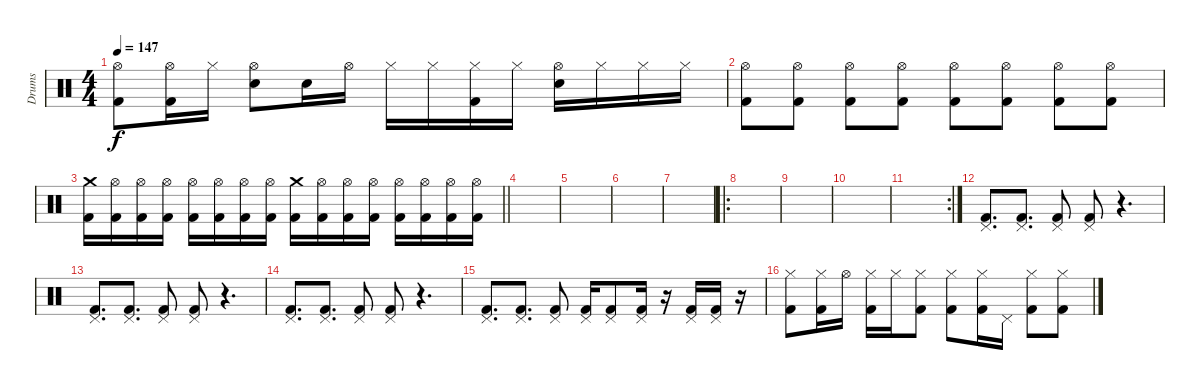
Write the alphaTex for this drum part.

\track ("Drums" "Drums") {instrument percussion}
\staff {score}
\articulation defaults
\ts (4 4)
\tempo 147
\clef neutral
\ks c
("Hi-Hat (open)" "Kick (hit) 2").8{dy f} ("Hi-Hat (open)" "Kick (hit) 2").16 "Hi-Hat (closed)".16 ("Hi-Hat (open)" "Electric Snare (hit)").8 "Electric Snare (hit)".16 "Hi-Hat (open)".16 "Hi-Hat (closed)".16 "Hi-Hat (closed)".16 ("Hi-Hat (closed)" "Kick (hit) 2").16 "Hi-Hat (closed)".16 ("Hi-Hat (open)" "Electric Snare (hit)").16 "Hi-Hat (closed)".16 "Hi-Hat (closed)".16 "Hi-Hat (closed)".16 |
("Hi-Hat (open)" "Kick (hit) 2").8 ("Hi-Hat (open)" "Kick (hit) 2").8 ("Hi-Hat (open)" "Kick (hit) 2").8 ("Hi-Hat (open)" "Kick (hit) 2").8 ("Hi-Hat (open)" "Kick (hit) 2").8 ("Hi-Hat (open)" "Kick (hit) 2").8 ("Hi-Hat (open)" "Kick (hit) 2").8 ("Hi-Hat (open)" "Kick (hit) 2").8 |
\barLineRight lightlight
("Crash medium (hit)" "Kick (hit) 2").16 ("Hi-Hat (open)" "Kick (hit) 2").16 ("Hi-Hat (open)" "Kick (hit) 2").16 ("Hi-Hat (open)" "Kick (hit) 2").16 ("Hi-Hat (open)" "Kick (hit) 2").16 ("Hi-Hat (open)" "Kick (hit) 2").16 ("Hi-Hat (open)" "Kick (hit) 2").16 ("Hi-Hat (open)" "Kick (hit) 2").16 ("Crash medium (hit)" "Kick (hit) 2").16 ("Hi-Hat (open)" "Kick (hit) 2").16 ("Hi-Hat (open)" "Kick (hit) 2").16 ("Hi-Hat (open)" "Kick (hit) 2").16 ("Hi-Hat (open)" "Kick (hit) 2").16 ("Hi-Hat (open)" "Kick (hit) 2").16 ("Hi-Hat (open)" "Kick (hit) 2").16 ("Hi-Hat (open)" "Kick (hit) 2").16 |
|
|
|
|
\ro
|
|
|
\rc 2
|
("Pedal Hi-Hat (hit)" "Kick (hit) 2").8{d} ("Pedal Hi-Hat (hit)" "Kick (hit) 2").8{d} ("Pedal Hi-Hat (hit)" "Kick (hit) 2").8 ("Pedal Hi-Hat (hit)" "Kick (hit) 2").8 r.4{d} |
("Pedal Hi-Hat (hit)" "Kick (hit) 2").8{d} ("Pedal Hi-Hat (hit)" "Kick (hit) 2").8{d} ("Pedal Hi-Hat (hit)" "Kick (hit) 2").8 ("Pedal Hi-Hat (hit)" "Kick (hit) 2").8 r.4{d} |
("Pedal Hi-Hat (hit)" "Kick (hit) 2").8{d} ("Pedal Hi-Hat (hit)" "Kick (hit) 2").8{d} ("Pedal Hi-Hat (hit)" "Kick (hit) 2").8 ("Pedal Hi-Hat (hit)" "Kick (hit) 2").8 r.4{d} |
("Pedal Hi-Hat (hit)" "Kick (hit) 2").8{d} ("Pedal Hi-Hat (hit)" "Kick (hit) 2").8{d} ("Pedal Hi-Hat (hit)" "Kick (hit) 2").8 ("Pedal Hi-Hat (hit)" "Kick (hit) 2").16 ("Pedal Hi-Hat (hit)" "Kick (hit) 2").8 ("Pedal Hi-Hat (hit)" "Kick (hit) 2").16 r.16 ("Pedal Hi-Hat (hit)" "Kick (hit) 2").16 ("Pedal Hi-Hat (hit)" "Kick (hit) 2").16 r.16 |
("Hi-Hat (closed)" "Kick (hit) 2").8 ("Hi-Hat (closed)" "Kick (hit) 2").16 "Hi-Hat (open)".16 ("Hi-Hat (closed)" "Kick (hit) 2").16 "Hi-Hat (closed)".16 ("Hi-Hat (closed)" "Kick (hit) 2").8 ("Hi-Hat (closed)" "Kick (hit) 2").8 ("Hi-Hat (closed)" "Kick (hit) 2").16 "Pedal Hi-Hat (hit)".16 ("Hi-Hat (closed)" "Kick (hit) 2").8 ("Hi-Hat (closed)" "Kick (hit) 2").8
